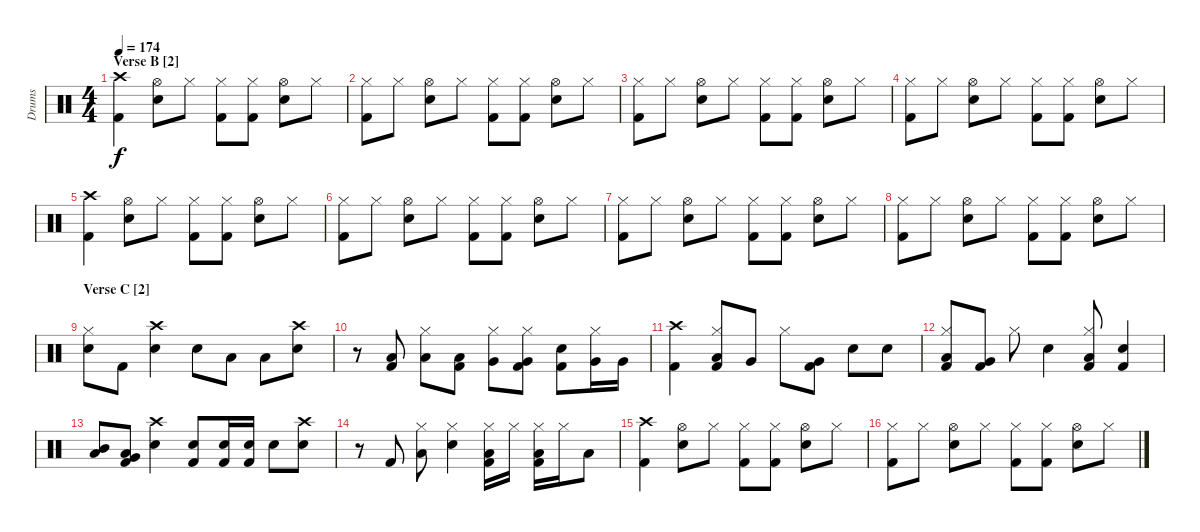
\track ("Drums" "Drums") {instrument percussion}
\staff {score}
\articulation defaults
\ts (4 4)
\section ("" "Verse B [2]")
\tempo 174
\clef neutral
\ks c
("Crash high (hit)" "Kick (hit) 2").4{dy f} ("Hi-Hat (open)" "Electric Snare (hit)").8 "Hi-Hat (closed)".8 ("Hi-Hat (closed)" "Kick (hit) 2").8 ("Hi-Hat (closed)" "Kick (hit) 2").8 ("Hi-Hat (open)" "Electric Snare (hit)").8 "Hi-Hat (closed)".8 |
("Hi-Hat (closed)" "Kick (hit) 2").8 "Hi-Hat (closed)".8 ("Hi-Hat (open)" "Electric Snare (hit)").8 "Hi-Hat (closed)".8 ("Hi-Hat (closed)" "Kick (hit) 2").8 ("Hi-Hat (closed)" "Kick (hit) 2").8 ("Hi-Hat (open)" "Electric Snare (hit)").8 "Hi-Hat (closed)".8 |
("Hi-Hat (closed)" "Kick (hit) 2").8 "Hi-Hat (closed)".8 ("Hi-Hat (open)" "Electric Snare (hit)").8 "Hi-Hat (closed)".8 ("Hi-Hat (closed)" "Kick (hit) 2").8 ("Hi-Hat (closed)" "Kick (hit) 2").8 ("Hi-Hat (open)" "Electric Snare (hit)").8 "Hi-Hat (closed)".8 |
("Hi-Hat (closed)" "Kick (hit) 2").8 "Hi-Hat (closed)".8 ("Hi-Hat (open)" "Electric Snare (hit)").8 "Hi-Hat (closed)".8 ("Hi-Hat (closed)" "Kick (hit) 2").8 ("Hi-Hat (closed)" "Kick (hit) 2").8 ("Hi-Hat (open)" "Electric Snare (hit)").8 "Hi-Hat (closed)".8 |
("Crash high (hit)" "Kick (hit) 2").4 ("Hi-Hat (open)" "Electric Snare (hit)").8 "Hi-Hat (closed)".8 ("Hi-Hat (closed)" "Kick (hit) 2").8 ("Hi-Hat (closed)" "Kick (hit) 2").8 ("Hi-Hat (open)" "Electric Snare (hit)").8 "Hi-Hat (closed)".8 |
("Hi-Hat (closed)" "Kick (hit) 2").8 "Hi-Hat (closed)".8 ("Hi-Hat (open)" "Electric Snare (hit)").8 "Hi-Hat (closed)".8 ("Hi-Hat (closed)" "Kick (hit) 2").8 ("Hi-Hat (closed)" "Kick (hit) 2").8 ("Hi-Hat (open)" "Electric Snare (hit)").8 "Hi-Hat (closed)".8 |
("Hi-Hat (closed)" "Kick (hit) 2").8 "Hi-Hat (closed)".8 ("Hi-Hat (open)" "Electric Snare (hit)").8 "Hi-Hat (closed)".8 ("Hi-Hat (closed)" "Kick (hit) 2").8 ("Hi-Hat (closed)" "Kick (hit) 2").8 ("Hi-Hat (open)" "Electric Snare (hit)").8 "Hi-Hat (closed)".8 |
("Hi-Hat (closed)" "Kick (hit) 2").8 "Hi-Hat (closed)".8 ("Hi-Hat (open)" "Electric Snare (hit)").8 "Hi-Hat (closed)".8 ("Hi-Hat (closed)" "Kick (hit) 2").8 ("Hi-Hat (closed)" "Kick (hit) 2").8 ("Hi-Hat (open)" "Electric Snare (hit)").8 "Hi-Hat (closed)".8 |
\section ("" "Verse C [2]")
("Hi-Hat (closed)" "Electric Snare (hit)").8 "Kick (hit) 2".8 ("Crash high (hit)" "Electric Snare (hit)").4 "Electric Snare (hit)".8 "Low Tom (hit)".8 "Low Tom (hit)".8 ("Crash high (hit)" "Electric Snare (hit)").8 |
r.8 ("Low Tom (hit)" "Kick (hit) 2").8 ("Hi-Hat (closed)" "Low Tom (hit)").8 ("Low Tom (hit)" "Kick (hit) 2").8 ("Hi-Hat (closed)" "Very Low Tom (hit)").8 ("Hi-Hat (closed)" "Very Low Tom (hit)" "Kick (hit) 2").8 ("Electric Snare (hit)" "Kick (hit) 2").8 ("Hi-Hat (closed)" "Very Low Tom (hit)").16 "Very Low Tom (hit)".16 |
("Crash high (hit)" "Kick (hit) 2").4 ("Hi-Hat (closed)" "Low Tom (hit)" "Kick (hit) 2").8 "Very Low Tom (hit)".8 "Hi-Hat (closed)".8 ("Very Low Tom (hit)" "Kick (hit) 2").8 "Electric Snare (hit)".8 "Electric Snare (hit)".8 |
("Hi-Hat (closed)" "Low Tom (hit)" "Kick (hit) 2").8 ("Very Low Tom (hit)" "Kick (hit) 2").8 "Hi-Hat (closed)".8 "Electric Snare (hit)".4 ("Hi-Hat (closed)" "Low Tom (hit)" "Kick (hit) 2").8 ("Electric Snare (hit)" "Kick (hit) 2").4 |
("Mid Tom (hit)" "Low Tom (hit)").8 ("Low Tom (hit)" "Very Low Tom (hit)" "Kick (hit) 2").8 ("Crash high (hit)" "Electric Snare (hit)").4 ("Electric Snare (hit)" "Kick (hit) 2").8 ("Electric Snare (hit)" "Kick (hit) 2").16 ("Electric Snare (hit)" "Kick (hit) 2").16 "Electric Snare (hit)".8 ("Crash high (hit)" "Electric Snare (hit)").8 |
r.8 "Kick (hit) 2".8 ("Hi-Hat (closed)" "Low Tom (hit)").8 ("Hi-Hat (closed)" "Electric Snare (hit)").4 ("Hi-Hat (closed)" "Low Tom (hit)" "Kick (hit) 2").16 "Hi-Hat (closed)".16 ("Hi-Hat (closed)" "Low Tom (hit)" "Kick (hit) 2").16 "Hi-Hat (closed)".16 "Low Tom (hit)".8 |
("Crash high (hit)" "Kick (hit) 2").4 ("Hi-Hat (open)" "Electric Snare (hit)").8 "Hi-Hat (closed)".8 ("Hi-Hat (closed)" "Kick (hit) 2").8 ("Hi-Hat (closed)" "Kick (hit) 2").8 ("Hi-Hat (open)" "Electric Snare (hit)").8 "Hi-Hat (closed)".8 |
("Hi-Hat (closed)" "Kick (hit) 2").8 "Hi-Hat (closed)".8 ("Hi-Hat (open)" "Electric Snare (hit)").8 "Hi-Hat (closed)".8 ("Hi-Hat (closed)" "Kick (hit) 2").8 ("Hi-Hat (closed)" "Kick (hit) 2").8 ("Hi-Hat (open)" "Electric Snare (hit)").8 "Hi-Hat (closed)".8
